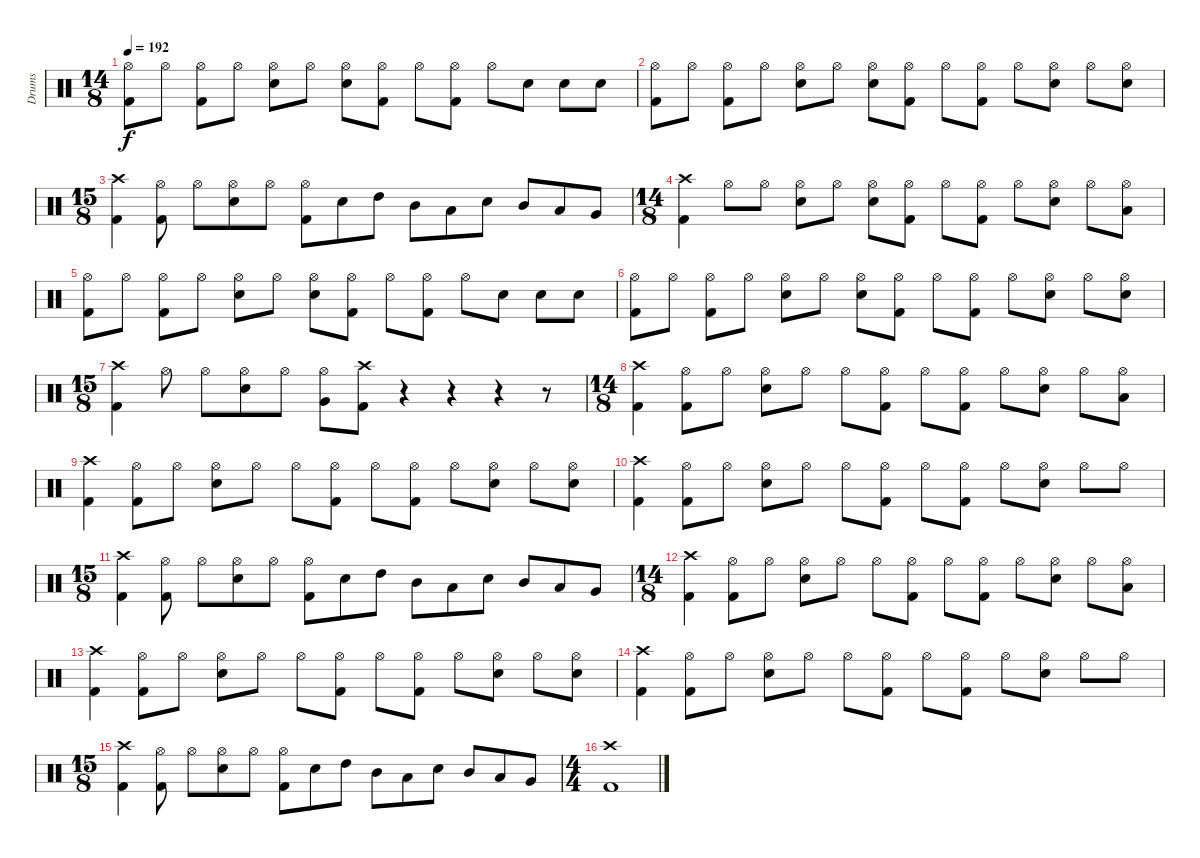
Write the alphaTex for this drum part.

\track ("Drums" "Drums") {instrument percussion}
\staff {score}
\articulation defaults
\ts (14 8)
\tempo 192
\clef neutral
\ks c
("Hi-Hat (open)" "Kick (hit) 2").8{dy f} "Hi-Hat (open)".8 ("Hi-Hat (open)" "Kick (hit) 2").8 "Hi-Hat (open)".8 ("Hi-Hat (open)" "Snare (hit) 2").8 "Hi-Hat (open)".8 ("Hi-Hat (open)" "Snare (hit) 2").8 ("Hi-Hat (open)" "Kick (hit) 2").8 "Hi-Hat (open)".8 ("Hi-Hat (open)" "Kick (hit) 2").8 "Hi-Hat (open)".8 "Snare (hit) 2".8 "Snare (hit) 2".8 "Snare (hit) 2".8 |
("Hi-Hat (open)" "Kick (hit) 2").8 "Hi-Hat (open)".8 ("Hi-Hat (open)" "Kick (hit) 2").8 "Hi-Hat (open)".8 ("Hi-Hat (open)" "Snare (hit) 2").8 "Hi-Hat (open)".8 ("Hi-Hat (open)" "Snare (hit) 2").8 ("Hi-Hat (open)" "Kick (hit) 2").8 "Hi-Hat (open)".8 ("Hi-Hat (open)" "Kick (hit) 2").8 "Hi-Hat (open)".8 ("Hi-Hat (open)" "Snare (hit) 2").8 "Hi-Hat (open)".8 ("Hi-Hat (open)" "Snare (hit) 2").8 |
\ts (15 8)
("Crash high (hit)" "Kick (hit) 2").4 ("Hi-Hat (open)" "Kick (hit) 2").8 "Hi-Hat (open)".8 ("Hi-Hat (open)" "Snare (hit) 2").8 "Hi-Hat (open)".8 ("Hi-Hat (open)" "Kick (hit) 2").8 "Snare (hit) 2".8 "High Tom (hit)".8 "Mid Tom (hit)".8 "Low Tom (hit)".8 "Snare (hit) 2".8 "Mid Tom (hit)".8 "Low Tom (hit)".8 "Very Low Tom (hit)".8 |
\ts (14 8)
("Crash high (hit)" "Kick (hit) 2").4 "Hi-Hat (open)".8 "Hi-Hat (open)".8 ("Hi-Hat (open)" "Snare (hit) 2").8 "Hi-Hat (open)".8 ("Hi-Hat (open)" "Snare (hit) 2").8 ("Hi-Hat (open)" "Kick (hit) 2").8 "Hi-Hat (open)".8 ("Hi-Hat (open)" "Kick (hit) 2").8 "Hi-Hat (open)".8 ("Hi-Hat (open)" "Snare (hit) 2").8 "Hi-Hat (open)".8 ("Hi-Hat (open)" "Low Tom (hit)").8 |
("Hi-Hat (open)" "Kick (hit) 2").8 "Hi-Hat (open)".8 ("Hi-Hat (open)" "Kick (hit) 2").8 "Hi-Hat (open)".8 ("Hi-Hat (open)" "Snare (hit) 2").8 "Hi-Hat (open)".8 ("Hi-Hat (open)" "Snare (hit) 2").8 ("Hi-Hat (open)" "Kick (hit) 2").8 "Hi-Hat (open)".8 ("Hi-Hat (open)" "Kick (hit) 2").8 "Hi-Hat (open)".8 "Snare (hit) 2".8 "Snare (hit) 2".8 "Snare (hit) 2".8 |
("Hi-Hat (open)" "Kick (hit) 2").8 "Hi-Hat (open)".8 ("Hi-Hat (open)" "Kick (hit) 2").8 "Hi-Hat (open)".8 ("Hi-Hat (open)" "Snare (hit) 2").8 "Hi-Hat (open)".8 ("Hi-Hat (open)" "Snare (hit) 2").8 ("Hi-Hat (open)" "Kick (hit) 2").8 "Hi-Hat (open)".8 ("Hi-Hat (open)" "Kick (hit) 2").8 "Hi-Hat (open)".8 ("Hi-Hat (open)" "Snare (hit) 2").8 "Hi-Hat (open)".8 ("Hi-Hat (open)" "Snare (hit) 2").8 |
\ts (15 8)
("Crash high (hit)" "Kick (hit) 2").4 "Hi-Hat (open)".8 "Hi-Hat (open)".8 ("Hi-Hat (open)" "Snare (hit) 2").8 "Hi-Hat (open)".8 ("Hi-Hat (open)" "Very Low Tom (hit)").8 ("Crash high (hit)" "Kick (hit) 2").8 r.4 r.4 r.4 r.8 |
\ts (14 8)
("Crash high (hit)" "Kick (hit) 2").4 ("Hi-Hat (open)" "Kick (hit) 2").8 "Hi-Hat (open)".8 ("Hi-Hat (open)" "Snare (hit) 2").8 "Hi-Hat (open)".8 "Hi-Hat (open)".8 ("Hi-Hat (open)" "Kick (hit) 2").8 "Hi-Hat (open)".8 ("Hi-Hat (open)" "Kick (hit) 2").8 "Hi-Hat (open)".8 ("Hi-Hat (open)" "Snare (hit) 2").8 "Hi-Hat (open)".8 ("Hi-Hat (open)" "Low Tom (hit)").8 |
("Crash high (hit)" "Kick (hit) 2").4 ("Hi-Hat (open)" "Kick (hit) 2").8 "Hi-Hat (open)".8 ("Hi-Hat (open)" "Snare (hit) 2").8 "Hi-Hat (open)".8 "Hi-Hat (open)".8 ("Hi-Hat (open)" "Kick (hit) 2").8 "Hi-Hat (open)".8 ("Hi-Hat (open)" "Kick (hit) 2").8 "Hi-Hat (open)".8 ("Hi-Hat (open)" "Snare (hit) 2").8 "Hi-Hat (open)".8 ("Hi-Hat (open)" "Snare (hit) 2").8 |
("Crash high (hit)" "Kick (hit) 2").4 ("Hi-Hat (open)" "Kick (hit) 2").8 "Hi-Hat (open)".8 ("Hi-Hat (open)" "Snare (hit) 2").8 "Hi-Hat (open)".8 "Hi-Hat (open)".8 ("Hi-Hat (open)" "Kick (hit) 2").8 "Hi-Hat (open)".8 ("Hi-Hat (open)" "Kick (hit) 2").8 "Hi-Hat (open)".8 ("Hi-Hat (open)" "Snare (hit) 2").8 "Hi-Hat (open)".8 "Hi-Hat (open)".8 |
\ts (15 8)
("Crash high (hit)" "Kick (hit) 2").4 ("Hi-Hat (open)" "Kick (hit) 2").8 "Hi-Hat (open)".8 ("Hi-Hat (open)" "Snare (hit) 2").8 "Hi-Hat (open)".8 ("Hi-Hat (open)" "Kick (hit) 2").8 "Snare (hit) 2".8 "High Tom (hit)".8 "Mid Tom (hit)".8 "Low Tom (hit)".8 "Snare (hit) 2".8 "Mid Tom (hit)".8 "Low Tom (hit)".8 "Very Low Tom (hit)".8 |
\ts (14 8)
("Crash high (hit)" "Kick (hit) 2").4 ("Hi-Hat (open)" "Kick (hit) 2").8 "Hi-Hat (open)".8 ("Hi-Hat (open)" "Snare (hit) 2").8 "Hi-Hat (open)".8 "Hi-Hat (open)".8 ("Hi-Hat (open)" "Kick (hit) 2").8 "Hi-Hat (open)".8 ("Hi-Hat (open)" "Kick (hit) 2").8 "Hi-Hat (open)".8 ("Hi-Hat (open)" "Snare (hit) 2").8 "Hi-Hat (open)".8 ("Hi-Hat (open)" "Low Tom (hit)").8 |
("Crash high (hit)" "Kick (hit) 2").4 ("Hi-Hat (open)" "Kick (hit) 2").8 "Hi-Hat (open)".8 ("Hi-Hat (open)" "Snare (hit) 2").8 "Hi-Hat (open)".8 "Hi-Hat (open)".8 ("Hi-Hat (open)" "Kick (hit) 2").8 "Hi-Hat (open)".8 ("Hi-Hat (open)" "Kick (hit) 2").8 "Hi-Hat (open)".8 ("Hi-Hat (open)" "Snare (hit) 2").8 "Hi-Hat (open)".8 ("Hi-Hat (open)" "Snare (hit) 2").8 |
("Crash high (hit)" "Kick (hit) 2").4 ("Hi-Hat (open)" "Kick (hit) 2").8 "Hi-Hat (open)".8 ("Hi-Hat (open)" "Snare (hit) 2").8 "Hi-Hat (open)".8 "Hi-Hat (open)".8 ("Hi-Hat (open)" "Kick (hit) 2").8 "Hi-Hat (open)".8 ("Hi-Hat (open)" "Kick (hit) 2").8 "Hi-Hat (open)".8 ("Hi-Hat (open)" "Snare (hit) 2").8 "Hi-Hat (open)".8 "Hi-Hat (open)".8 |
\ts (15 8)
("Crash high (hit)" "Kick (hit) 2").4 ("Hi-Hat (open)" "Kick (hit) 2").8 "Hi-Hat (open)".8 ("Hi-Hat (open)" "Snare (hit) 2").8 "Hi-Hat (open)".8 ("Hi-Hat (open)" "Kick (hit) 2").8 "Snare (hit) 2".8 "High Tom (hit)".8 "Mid Tom (hit)".8 "Low Tom (hit)".8 "Snare (hit) 2".8 "Mid Tom (hit)".8 "Low Tom (hit)".8 "Very Low Tom (hit)".8 |
\ts (4 4)
("Crash high (hit)" "Kick (hit) 2").1
